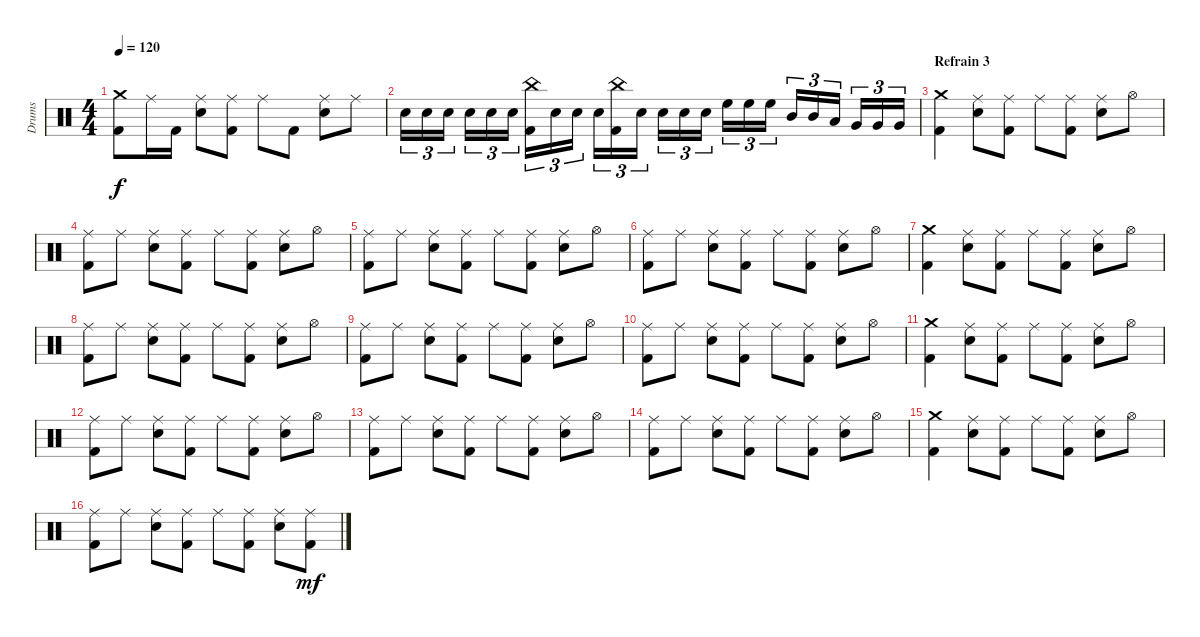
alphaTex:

\track ("Drums" "Drums") {instrument percussion}
\staff {score}
\articulation defaults
\ts (4 4)
\tempo 120
\clef neutral
\ks c
("Crash medium (hit)" "Kick (hit) 2").8{dy f} "Ride (middle)".16 "Kick (hit) 2".16 ("Ride (middle)" "Snare (hit) 2").8 ("Ride (middle)" "Kick (hit) 2").8 "Ride (middle)".8 "Kick (hit) 2".8 ("Ride (middle)" "Snare (hit) 2").8 "Ride (middle)".8 |
"Snare (hit) 2".16{tu (3 2)} "Snare (hit) 2".16{tu (3 2)} "Snare (hit) 2".16{tu (3 2)} "Snare (hit) 2".16{tu (3 2)} "Snare (hit) 2".16{tu (3 2)} "Snare (hit) 2".16{tu (3 2)} ("China (hit)" "Kick (hit) 2").16{tu (3 2)} "Snare (hit) 2".16{tu (3 2)} "Snare (hit) 2".16{tu (3 2)} "Snare (hit) 2".16{tu (3 2)} ("China (hit)" "Kick (hit) 2").16{tu (3 2)} "Snare (hit) 2".16{tu (3 2)} "Snare (hit) 2".16{tu (3 2)} "Snare (hit) 2".16{tu (3 2)} "Snare (hit) 2".16{tu (3 2)} "High Floor Tom (hit)".16{tu (3 2)} "High Floor Tom (hit)".16{tu (3 2)} "High Floor Tom (hit)".16{tu (3 2)} "Mid Tom (hit)".16{tu (3 2)} "Mid Tom (hit)".16{tu (3 2)} "Low Tom (hit)".16{tu (3 2)} "Very Low Tom (hit)".16{tu (3 2)} "Very Low Tom (hit)".16{tu (3 2)} "Very Low Tom (hit)".16{tu (3 2)} |
\section ("" "Refrain 3")
("Crash medium (hit)" "Kick (hit) 2").4 ("Ride (middle)" "Snare (hit) 2").8 ("Ride (middle)" "Kick (hit) 2").8 "Ride (middle)".8 ("Ride (middle)" "Kick (hit) 2").8 ("Ride (middle)" "Snare (hit) 2").8 "Hi-Hat (open)".8 |
("Ride (middle)" "Kick (hit) 2").8 "Ride (middle)".8 ("Ride (middle)" "Snare (hit) 2").8 ("Ride (middle)" "Kick (hit) 2").8 "Ride (middle)".8 ("Ride (middle)" "Kick (hit) 2").8 ("Ride (middle)" "Snare (hit) 2").8 "Hi-Hat (open)".8 |
("Ride (middle)" "Kick (hit) 2").8 "Ride (middle)".8 ("Ride (middle)" "Snare (hit) 2").8 ("Ride (middle)" "Kick (hit) 2").8 "Ride (middle)".8 ("Ride (middle)" "Kick (hit) 2").8 ("Ride (middle)" "Snare (hit) 2").8 "Hi-Hat (open)".8 |
("Ride (middle)" "Kick (hit) 2").8 "Ride (middle)".8 ("Ride (middle)" "Snare (hit) 2").8 ("Ride (middle)" "Kick (hit) 2").8 "Ride (middle)".8 ("Ride (middle)" "Kick (hit) 2").8 ("Ride (middle)" "Snare (hit) 2").8 "Hi-Hat (open)".8 |
("Crash medium (hit)" "Kick (hit) 2").4 ("Ride (middle)" "Snare (hit) 2").8 ("Ride (middle)" "Kick (hit) 2").8 "Ride (middle)".8 ("Ride (middle)" "Kick (hit) 2").8 ("Ride (middle)" "Snare (hit) 2").8 "Hi-Hat (open)".8 |
("Ride (middle)" "Kick (hit) 2").8 "Ride (middle)".8 ("Ride (middle)" "Snare (hit) 2").8 ("Ride (middle)" "Kick (hit) 2").8 "Ride (middle)".8 ("Ride (middle)" "Kick (hit) 2").8 ("Ride (middle)" "Snare (hit) 2").8 "Hi-Hat (open)".8 |
("Ride (middle)" "Kick (hit) 2").8 "Ride (middle)".8 ("Ride (middle)" "Snare (hit) 2").8 ("Ride (middle)" "Kick (hit) 2").8 "Ride (middle)".8 ("Ride (middle)" "Kick (hit) 2").8 ("Ride (middle)" "Snare (hit) 2").8 "Hi-Hat (open)".8 |
("Ride (middle)" "Kick (hit) 2").8 "Ride (middle)".8 ("Ride (middle)" "Snare (hit) 2").8 ("Ride (middle)" "Kick (hit) 2").8 "Ride (middle)".8 ("Ride (middle)" "Kick (hit) 2").8 ("Ride (middle)" "Snare (hit) 2").8 "Hi-Hat (open)".8 |
("Crash medium (hit)" "Kick (hit) 2").4 ("Ride (middle)" "Snare (hit) 2").8 ("Ride (middle)" "Kick (hit) 2").8 "Ride (middle)".8 ("Ride (middle)" "Kick (hit) 2").8 ("Ride (middle)" "Snare (hit) 2").8 "Hi-Hat (open)".8 |
("Ride (middle)" "Kick (hit) 2").8 "Ride (middle)".8 ("Ride (middle)" "Snare (hit) 2").8 ("Ride (middle)" "Kick (hit) 2").8 "Ride (middle)".8 ("Ride (middle)" "Kick (hit) 2").8 ("Ride (middle)" "Snare (hit) 2").8 "Hi-Hat (open)".8 |
("Ride (middle)" "Kick (hit) 2").8 "Ride (middle)".8 ("Ride (middle)" "Snare (hit) 2").8 ("Ride (middle)" "Kick (hit) 2").8 "Ride (middle)".8 ("Ride (middle)" "Kick (hit) 2").8 ("Ride (middle)" "Snare (hit) 2").8 "Hi-Hat (open)".8 |
("Ride (middle)" "Kick (hit) 2").8 "Ride (middle)".8 ("Ride (middle)" "Snare (hit) 2").8 ("Ride (middle)" "Kick (hit) 2").8 "Ride (middle)".8 ("Ride (middle)" "Kick (hit) 2").8 ("Ride (middle)" "Snare (hit) 2").8 "Hi-Hat (open)".8 |
("Crash medium (hit)" "Kick (hit) 2").4 ("Ride (middle)" "Snare (hit) 2").8 ("Ride (middle)" "Kick (hit) 2").8 "Ride (middle)".8 ("Ride (middle)" "Kick (hit) 2").8 ("Ride (middle)" "Snare (hit) 2").8 "Hi-Hat (open)".8 |
("Ride (middle)" "Kick (hit) 2").8 "Ride (middle)".8 ("Ride (middle)" "Snare (hit) 2").8 ("Ride (middle)" "Kick (hit) 2").8 "Ride (middle)".8 ("Ride (middle)" "Kick (hit) 2").8 ("Ride (middle)" "Snare (hit) 2").8 ("Ride (middle)" "Kick (hit) 2").8{dy mf}
